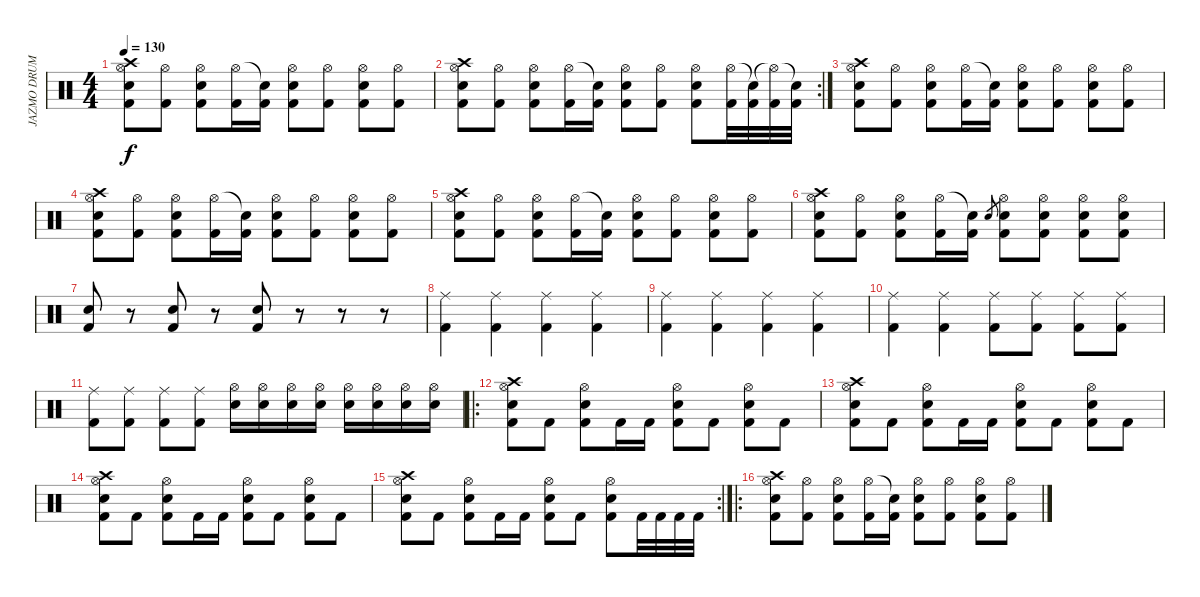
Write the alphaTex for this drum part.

\track ("JAZMO DRUMS" "JAZMO DRUM") {instrument percussion}
\staff {score}
\articulation defaults
\ts (4 4)
\tempo 130
\clef neutral
\ks c
("Crash high (hit)" "Hi-Hat (open)" "Snare (hit) 2" "Kick (hit) 2").8{dy f} ("Hi-Hat (open)" "Kick (hit) 2").8 ("Hi-Hat (open)" "Snare (hit) 2" "Kick (hit) 2").8 ("Hi-Hat (open)" "Kick (hit) 2").16 ("Snare (hit)"{t} "Kick (hit) 2").16 ("Hi-Hat (open)" "Snare (hit) 2" "Kick (hit) 2").8 ("Hi-Hat (open)" "Kick (hit) 2").8 ("Hi-Hat (open)" "Snare (hit) 2" "Kick (hit) 2").8 ("Hi-Hat (open)" "Kick (hit) 2").8 |
\rc 2
("Crash high (hit)" "Hi-Hat (open)" "Snare (hit) 2" "Kick (hit) 2").8 ("Hi-Hat (open)" "Kick (hit) 2").8 ("Hi-Hat (open)" "Snare (hit) 2" "Kick (hit) 2").8 ("Hi-Hat (open)" "Kick (hit) 2").16 ("Snare (hit)"{t} "Kick (hit) 2").16 ("Hi-Hat (open)" "Snare (hit) 2" "Kick (hit) 2").8 ("Hi-Hat (open)" "Kick (hit) 2").8 ("Hi-Hat (open)" "Snare (hit) 2" "Kick (hit) 2").8 ("Hi-Hat (open)" "Kick (hit) 2").32 ("Snare (hit)"{t} "Kick (hit) 2").32 ("Hi-Hat (open)"{t} "Kick (hit) 2").32 ("Snare (hit)"{t} "Kick (hit) 2").32 |
("Crash high (hit)" "Hi-Hat (open)" "Snare (hit) 2" "Kick (hit) 2").8 ("Hi-Hat (open)" "Kick (hit) 2").8 ("Hi-Hat (open)" "Snare (hit) 2" "Kick (hit) 2").8 ("Hi-Hat (open)" "Kick (hit) 2").16 ("Snare (hit)"{t} "Kick (hit) 2").16 ("Hi-Hat (open)" "Snare (hit) 2" "Kick (hit) 2").8 ("Hi-Hat (open)" "Kick (hit) 2").8 ("Hi-Hat (open)" "Snare (hit) 2" "Kick (hit) 2").8 ("Hi-Hat (open)" "Kick (hit) 2").8 |
("Crash high (hit)" "Hi-Hat (open)" "Snare (hit) 2" "Kick (hit) 2").8 ("Hi-Hat (open)" "Kick (hit) 2").8 ("Hi-Hat (open)" "Snare (hit) 2" "Kick (hit) 2").8 ("Hi-Hat (open)" "Kick (hit) 2").16 ("Snare (hit)"{t} "Kick (hit) 2").16 ("Hi-Hat (open)" "Snare (hit) 2" "Kick (hit) 2").8 ("Hi-Hat (open)" "Kick (hit) 2").8 ("Hi-Hat (open)" "Snare (hit) 2" "Kick (hit) 2").8 ("Hi-Hat (open)" "Kick (hit) 2").8 |
("Crash high (hit)" "Hi-Hat (open)" "Snare (hit) 2" "Kick (hit) 2").8 ("Hi-Hat (open)" "Kick (hit) 2").8 ("Hi-Hat (open)" "Snare (hit) 2" "Kick (hit) 2").8 ("Hi-Hat (open)" "Kick (hit) 2").16 ("Snare (hit)"{t} "Kick (hit) 2").16 ("Hi-Hat (open)" "Snare (hit) 2" "Kick (hit) 2").8 ("Hi-Hat (open)" "Kick (hit) 2").8 ("Hi-Hat (open)" "Snare (hit) 2" "Kick (hit) 2").8 ("Hi-Hat (open)" "Kick (hit) 2").8 |
("Crash high (hit)" "Hi-Hat (open)" "Snare (hit) 2" "Kick (hit) 2").8 ("Hi-Hat (open)" "Kick (hit) 2").8 ("Hi-Hat (open)" "Snare (hit) 2" "Kick (hit) 2").8 ("Hi-Hat (open)" "Kick (hit) 2").16 ("Snare (hit)"{t} "Kick (hit) 2").16 "Electric Snare (hit)".8{gr} ("Hi-Hat (open)" "Electric Snare (hit)" "Kick (hit) 2").8 ("Hi-Hat (open)" "Electric Snare (hit)" "Kick (hit) 2").8 ("Hi-Hat (open)" "Electric Snare (hit)" "Kick (hit) 2").8 ("Hi-Hat (open)" "Electric Snare (hit)" "Kick (hit) 2").8 |
("Electric Snare (hit)" "Kick (hit) 2").8 r.8 ("Electric Snare (hit)" "Kick (hit) 2").8 r.8 ("Electric Snare (hit)" "Kick (hit) 2").8 r.8 r.8 r.8 |
("Ride (middle)" "Kick (hit) 2").4 ("Ride (middle)" "Kick (hit) 2").4 ("Ride (middle)" "Kick (hit) 2").4 ("Ride (middle)" "Kick (hit) 2").4 |
("Ride (middle)" "Kick (hit) 2").4 ("Ride (middle)" "Kick (hit) 2").4 ("Ride (middle)" "Kick (hit) 2").4 ("Ride (middle)" "Kick (hit) 2").4 |
("Ride (middle)" "Kick (hit) 2").4 ("Ride (middle)" "Kick (hit) 2").4 ("Ride (middle)" "Kick (hit) 2").8 ("Ride (middle)" "Kick (hit) 2").8 ("Ride (middle)" "Kick (hit) 2").8 ("Ride (middle)" "Kick (hit) 2").8 |
("Ride (middle)" "Kick (hit) 2").8 ("Ride (middle)" "Kick (hit) 2").8 ("Ride (middle)" "Kick (hit) 2").8 ("Ride (middle)" "Kick (hit) 2").8 ("Hi-Hat (open)" "Snare (hit) 2").16 ("Hi-Hat (open)" "Snare (hit) 2").16 ("Hi-Hat (open)" "Snare (hit) 2").16 ("Hi-Hat (open)" "Snare (hit) 2").16 ("Hi-Hat (open)" "Snare (hit) 2").16 ("Hi-Hat (open)" "Snare (hit) 2").16 ("Hi-Hat (open)" "Snare (hit) 2").16 ("Hi-Hat (open)" "Snare (hit) 2").16 |
\ro
("Crash high (hit)" "Hi-Hat (open)" "Snare (hit) 2" "Kick (hit) 2").8 "Kick (hit) 2".8 ("Hi-Hat (open)" "Snare (hit) 2" "Kick (hit) 2").8 "Kick (hit) 2".16 "Kick (hit) 2".16 ("Hi-Hat (open)" "Snare (hit) 2" "Kick (hit) 2").8 "Kick (hit) 2".8 ("Hi-Hat (open)" "Snare (hit) 2" "Kick (hit) 2").8 "Kick (hit) 2".8 |
("Crash high (hit)" "Hi-Hat (open)" "Snare (hit) 2" "Kick (hit) 2").8 "Kick (hit) 2".8 ("Hi-Hat (open)" "Snare (hit) 2" "Kick (hit) 2").8 "Kick (hit) 2".16 "Kick (hit) 2".16 ("Hi-Hat (open)" "Snare (hit) 2" "Kick (hit) 2").8 "Kick (hit) 2".8 ("Hi-Hat (open)" "Snare (hit) 2" "Kick (hit) 2").8 "Kick (hit) 2".8 |
("Crash high (hit)" "Hi-Hat (open)" "Snare (hit) 2" "Kick (hit) 2").8 "Kick (hit) 2".8 ("Hi-Hat (open)" "Snare (hit) 2" "Kick (hit) 2").8 "Kick (hit) 2".16 "Kick (hit) 2".16 ("Hi-Hat (open)" "Snare (hit) 2" "Kick (hit) 2").8 "Kick (hit) 2".8 ("Hi-Hat (open)" "Snare (hit) 2" "Kick (hit) 2").8 "Kick (hit) 2".8 |
\rc 2
("Crash high (hit)" "Hi-Hat (open)" "Snare (hit) 2" "Kick (hit) 2").8 "Kick (hit) 2".8 ("Hi-Hat (open)" "Snare (hit) 2" "Kick (hit) 2").8 "Kick (hit) 2".16 "Kick (hit) 2".16 ("Hi-Hat (open)" "Snare (hit) 2" "Kick (hit) 2").8 "Kick (hit) 2".8 ("Hi-Hat (open)" "Snare (hit) 2" "Kick (hit) 2").8 "Kick (hit) 2".32 "Kick (hit) 2".32 "Kick (hit) 2".32 "Kick (hit) 2".32 |
\ro
("Crash high (hit)" "Hi-Hat (open)" "Snare (hit) 2" "Kick (hit) 2").8 ("Hi-Hat (open)" "Kick (hit) 2").8 ("Hi-Hat (open)" "Snare (hit) 2" "Kick (hit) 2").8 ("Hi-Hat (open)" "Kick (hit) 2").16 ("Snare (hit)"{t} "Kick (hit) 2").16 ("Hi-Hat (open)" "Snare (hit) 2" "Kick (hit) 2").8 ("Hi-Hat (open)" "Kick (hit) 2").8 ("Hi-Hat (open)" "Snare (hit) 2" "Kick (hit) 2").8 ("Hi-Hat (open)" "Kick (hit) 2").8
